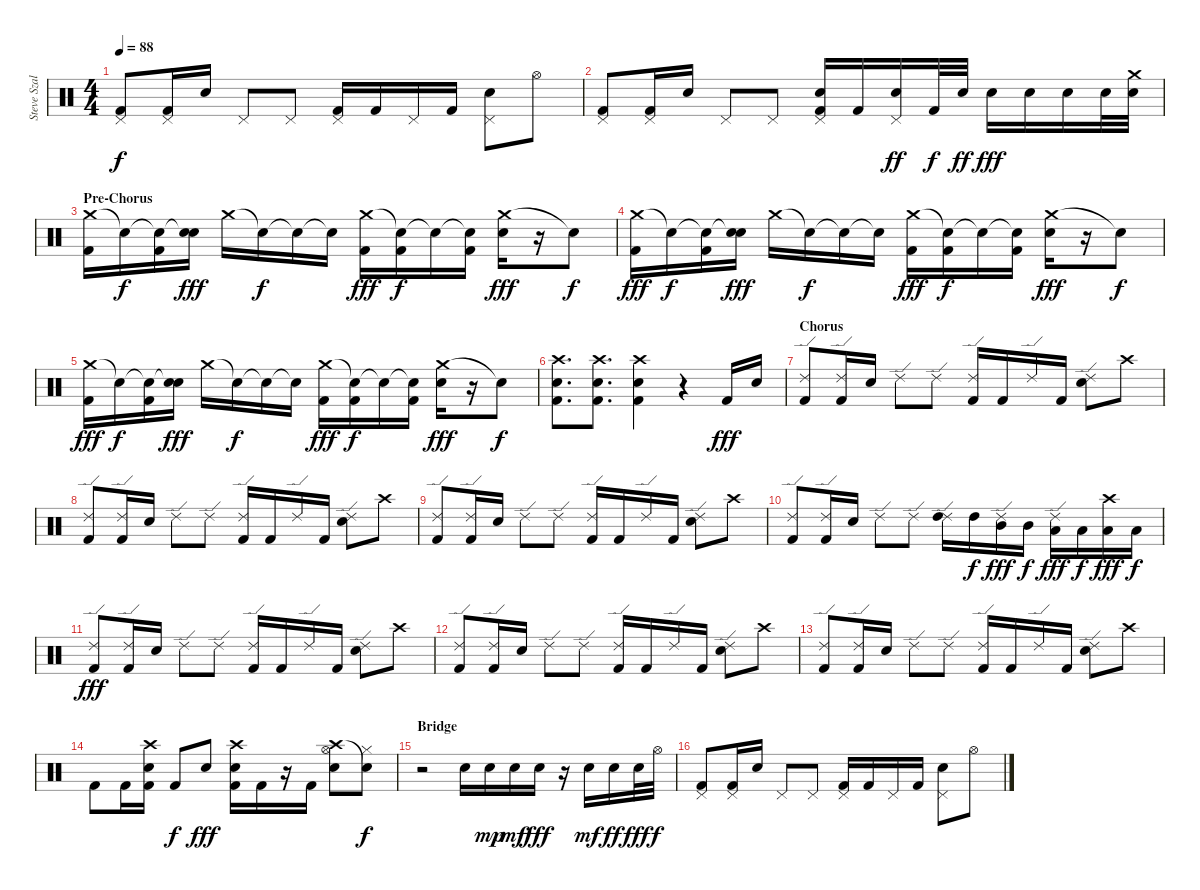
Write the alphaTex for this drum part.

\track ("Steve Szalay " "Steve Szal") {instrument percussion}
\staff {score}
\articulation defaults
\ts (4 4)
\tempo 88
\clef neutral
\ks c
("Pedal Hi-Hat (hit)" "Kick (hit) 2").8{dy f} ("Pedal Hi-Hat (hit)" "Kick (hit) 2").16 "Electric Snare (hit)".16 "Pedal Hi-Hat (hit)".8 "Pedal Hi-Hat (hit)".8 ("Pedal Hi-Hat (hit)" "Kick (hit) 2").16 "Kick (hit) 2".16 "Pedal Hi-Hat (hit)".16 "Kick (hit) 2".16 ("Pedal Hi-Hat (hit)" "Electric Snare (hit)").8 "Hi-Hat (open)".8 |
("Pedal Hi-Hat (hit)" "Kick (hit) 2").8 ("Pedal Hi-Hat (hit)" "Kick (hit) 2").16 "Electric Snare (hit)".16 "Pedal Hi-Hat (hit)".8 "Pedal Hi-Hat (hit)".8 ("Pedal Hi-Hat (hit)" "Electric Snare (hit)" "Kick (hit) 2").16 "Kick (hit) 2".16 ("Pedal Hi-Hat (hit)" "Electric Snare (hit)").16{dy ff} "Kick (hit) 2".32{dy f} "Electric Snare (hit)".32{dy ff} "Electric Snare (hit)".16{dy fff} "Electric Snare (hit)".16 "Electric Snare (hit)".16 "Electric Snare (hit)".32 ("Crash medium (hit)" "Electric Snare (hit)").32 |
\section ("" "Pre-Chorus")
("Crash medium (hit)" "Kick (hit) 2").16 "Snare (hit)"{t}.16{dy f} ("Snare (hit)"{t} "Kick (hit) 2").16 ("Snare (hit)"{t} "Electric Snare (hit)").16{dy fff} "Crash medium (hit)".16 "Snare (hit)"{t}.16{dy f} "Snare (hit)"{t}.16 "Snare (hit)"{t}.16 ("Crash medium (hit)" "Kick (hit) 2").16{dy fff} ("Snare (hit)"{t} "Kick (hit) 2").16{dy f} "Snare (hit)"{t}.16 ("Snare (hit)"{t} "Kick (hit) 2").16 ("Crash medium (hit)" "Electric Snare (hit)").16{dy fff} r.16 "Snare (hit)"{t}.8{dy f} |
("Crash medium (hit)" "Kick (hit) 2").16{dy fff} "Snare (hit)"{t}.16{dy f} ("Snare (hit)"{t} "Kick (hit) 2").16 ("Snare (hit)"{t} "Electric Snare (hit)").16{dy fff} "Crash medium (hit)".16 "Snare (hit)"{t}.16{dy f} "Snare (hit)"{t}.16 "Snare (hit)"{t}.16 ("Crash medium (hit)" "Kick (hit) 2").16{dy fff} ("Snare (hit)"{t} "Kick (hit) 2").16{dy f} "Snare (hit)"{t}.16 ("Snare (hit)"{t} "Kick (hit) 2").16 ("Crash medium (hit)" "Electric Snare (hit)").16{dy fff} r.16 "Snare (hit)"{t}.8{dy f} |
("Crash medium (hit)" "Kick (hit) 2").16{dy fff} "Snare (hit)"{t}.16{dy f} ("Snare (hit)"{t} "Kick (hit) 2").16 ("Snare (hit)"{t} "Electric Snare (hit)").16{dy fff} "Crash medium (hit)".16 "Snare (hit)"{t}.16{dy f} "Snare (hit)"{t}.16 "Snare (hit)"{t}.16 ("Crash medium (hit)" "Kick (hit) 2").16{dy fff} ("Snare (hit)"{t} "Kick (hit) 2").16{dy f} "Snare (hit)"{t}.16 ("Snare (hit)"{t} "Kick (hit) 2").16 ("Crash medium (hit)" "Electric Snare (hit)").16{dy fff} r.16 "Snare (hit)"{t}.8{dy f} |
("Crash high (hit)" "Electric Snare (hit)" "Kick (hit) 2").8{d} ("Crash high (hit)" "Electric Snare (hit)" "Kick (hit) 2").8{d} ("Crash high (hit)" "Electric Snare (hit)" "Kick (hit) 2").4 r.4 "Kick (hit) 2".16{dy fff} "Electric Snare (hit)".16 |
\section ("" "Chorus")
("Ride (edge) 2" "Kick (hit) 2").8 ("Ride (edge) 2" "Kick (hit) 2").16 "Electric Snare (hit)".16 "Ride (edge) 2".8 "Ride (edge) 2".8 ("Ride (edge) 2" "Kick (hit) 2").16 "Kick (hit) 2".16 "Ride (edge) 2".16 "Kick (hit) 2".16 ("Ride (edge) 2" "Electric Snare (hit)").8 "Crash high (hit)".8 |
("Ride (edge) 2" "Kick (hit) 2").8 ("Ride (edge) 2" "Kick (hit) 2").16 "Electric Snare (hit)".16 "Ride (edge) 2".8 "Ride (edge) 2".8 ("Ride (edge) 2" "Kick (hit) 2").16 "Kick (hit) 2".16 "Ride (edge) 2".16 "Kick (hit) 2".16 ("Ride (edge) 2" "Electric Snare (hit)").8 "Crash high (hit)".8 |
("Ride (edge) 2" "Kick (hit) 2").8 ("Ride (edge) 2" "Kick (hit) 2").16 "Electric Snare (hit)".16 "Ride (edge) 2".8 "Ride (edge) 2".8 ("Ride (edge) 2" "Kick (hit) 2").16 "Kick (hit) 2".16 "Ride (edge) 2".16 "Kick (hit) 2".16 ("Ride (edge) 2" "Electric Snare (hit)").8 "Crash high (hit)".8 |
("Ride (edge) 2" "Kick (hit) 2").8 ("Ride (edge) 2" "Kick (hit) 2").16 "Electric Snare (hit)".16 "Ride (edge) 2".8 "Ride (edge) 2".8 ("Ride (edge) 2" "High Tom (hit)").16 "High Tom (hit)".16{dy f} ("Ride (edge) 2" "Mid Tom (hit)").16{dy fff} "Mid Tom (hit)".16{dy f} ("Ride (edge) 2" "Low Floor Tom (hit)").16{dy fff} "Low Floor Tom (hit)".16{dy f} ("Crash high (hit)" "Low Floor Tom (hit)").16{dy fff} "Low Floor Tom (hit)".16{dy f} |
("Ride (edge) 2" "Kick (hit) 2").8{dy fff} ("Ride (edge) 2" "Kick (hit) 2").16 "Electric Snare (hit)".16 "Ride (edge) 2".8 "Ride (edge) 2".8 ("Ride (edge) 2" "Kick (hit) 2").16 "Kick (hit) 2".16 "Ride (edge) 2".16 "Kick (hit) 2".16 ("Ride (edge) 2" "Electric Snare (hit)").8 "Crash high (hit)".8 |
("Ride (edge) 2" "Kick (hit) 2").8 ("Ride (edge) 2" "Kick (hit) 2").16 "Electric Snare (hit)".16 "Ride (edge) 2".8 "Ride (edge) 2".8 ("Ride (edge) 2" "Kick (hit) 2").16 "Kick (hit) 2".16 "Ride (edge) 2".16 "Kick (hit) 2".16 ("Ride (edge) 2" "Electric Snare (hit)").8 "Crash high (hit)".8 |
("Ride (edge) 2" "Kick (hit) 2").8 ("Ride (edge) 2" "Kick (hit) 2").16 "Electric Snare (hit)".16 "Ride (edge) 2".8 "Ride (edge) 2".8 ("Ride (edge) 2" "Kick (hit) 2").16 "Kick (hit) 2".16 "Ride (edge) 2".16 "Kick (hit) 2".16 ("Ride (edge) 2" "Electric Snare (hit)").8 "Crash high (hit)".8 |
"Kick (hit) 2".8 "Kick (hit) 2".16 ("Crash high (hit)" "Electric Snare (hit)" "Kick (hit) 2").16 "Kick (hit) 2".8{dy f} "Electric Snare (hit)".8{dy fff} ("Crash high (hit)" "Electric Snare (hit)" "Kick (hit) 2").16 "Kick (hit) 2".16 r.16 "Kick (hit) 2".16 ("Crash high (hit)" "Hi-Hat (open)" "Electric Snare (hit)").8 ("Snare (hit)"{t} "Hi-Hat (closed)").8{dy f} |
\section ("" "Bridge")
r.2 "Electric Snare (hit)".16 "Electric Snare (hit)".16{dy mp} "Electric Snare (hit)".16{dy mf} "Electric Snare (hit)".16{dy fff} r.16 "Electric Snare (hit)".16{dy mf} "Electric Snare (hit)".16{dy ff} "Electric Snare (hit)".32{dy fff} "Hi-Hat (open)".32{dy f} |
("Pedal Hi-Hat (hit)" "Kick (hit) 2").8 ("Pedal Hi-Hat (hit)" "Kick (hit) 2").16 "Electric Snare (hit)".16 "Pedal Hi-Hat (hit)".8 "Pedal Hi-Hat (hit)".8 ("Pedal Hi-Hat (hit)" "Kick (hit) 2").16 "Kick (hit) 2".16 "Pedal Hi-Hat (hit)".16 "Kick (hit) 2".16 ("Pedal Hi-Hat (hit)" "Electric Snare (hit)").8 "Hi-Hat (open)".8
